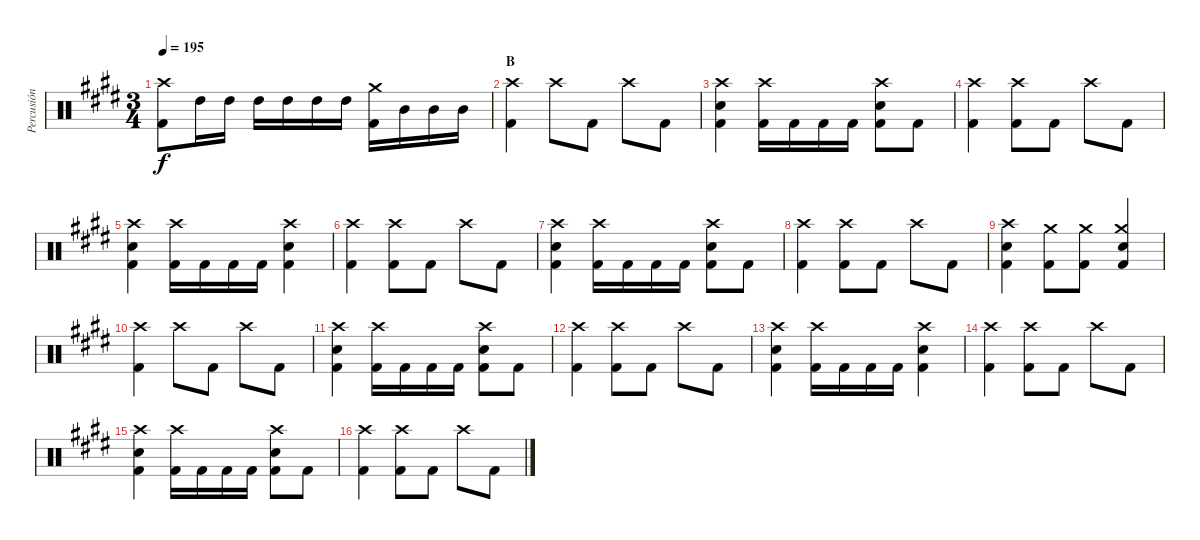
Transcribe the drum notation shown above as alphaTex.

\track ("Percusión" "Percusión") {instrument percussion}
\staff {score}
\articulation defaults
\ts (3 4)
\tempo 195
\clef neutral
\ks e
("Crash high (hit)" "Kick (hit) 2").8{dy f} "High Tom (hit)".16 "High Tom (hit)".16 "High Tom (hit)".16 "High Tom (hit)".16 "High Tom (hit)".16 "High Tom (hit)".16 ("Crash medium (hit)" "Kick (hit) 2").16 "Mid Tom (hit)".16 "Mid Tom (hit)".16 "Mid Tom (hit)".16 |
\section ("" "B")
("Crash high (hit)" "Kick (hit) 2").4 "Crash high (hit)".8 "Kick (hit) 2".8 "Crash high (hit)".8 "Kick (hit) 2".8 |
("Crash high (hit)" "Electric Snare (hit)" "Kick (hit) 2").4 ("Crash high (hit)" "Kick (hit) 2").16 "Kick (hit) 2".16 "Kick (hit) 2".16 "Kick (hit) 2".16 ("Crash high (hit)" "Electric Snare (hit)" "Kick (hit) 2").8 "Kick (hit) 2".8 |
("Crash high (hit)" "Kick (hit) 2").4 ("Crash high (hit)" "Kick (hit) 2").8 "Kick (hit) 2".8 "Crash high (hit)".8 "Kick (hit) 2".8 |
("Crash high (hit)" "Electric Snare (hit)" "Kick (hit) 2").4 ("Crash high (hit)" "Kick (hit) 2").16 "Kick (hit) 2".16 "Kick (hit) 2".16 "Kick (hit) 2".16 ("Crash high (hit)" "Electric Snare (hit)" "Kick (hit) 2").4 |
("Crash high (hit)" "Kick (hit) 2").4 ("Crash high (hit)" "Kick (hit) 2").8 "Kick (hit) 2".8 "Crash high (hit)".8 "Kick (hit) 2".8 |
("Crash high (hit)" "Electric Snare (hit)" "Kick (hit) 2").4 ("Crash high (hit)" "Kick (hit) 2").16 "Kick (hit) 2".16 "Kick (hit) 2".16 "Kick (hit) 2".16 ("Crash high (hit)" "Electric Snare (hit)" "Kick (hit) 2").8 "Kick (hit) 2".8 |
("Crash high (hit)" "Kick (hit) 2").4 ("Crash high (hit)" "Kick (hit) 2").8 "Kick (hit) 2".8 "Crash high (hit)".8 "Kick (hit) 2".8 |
("Crash high (hit)" "Electric Snare (hit)" "Kick (hit) 2").4 ("Crash medium (hit)" "Kick (hit) 2").8 ("Crash medium (hit)" "Kick (hit) 2").8 ("Crash medium (hit)" "Electric Snare (hit)" "Kick (hit) 2").4 |
("Crash high (hit)" "Kick (hit) 2").4 "Crash high (hit)".8 "Kick (hit) 2".8 "Crash high (hit)".8 "Kick (hit) 2".8 |
("Crash high (hit)" "Electric Snare (hit)" "Kick (hit) 2").4 ("Crash high (hit)" "Kick (hit) 2").16 "Kick (hit) 2".16 "Kick (hit) 2".16 "Kick (hit) 2".16 ("Crash high (hit)" "Electric Snare (hit)" "Kick (hit) 2").8 "Kick (hit) 2".8 |
("Crash high (hit)" "Kick (hit) 2").4 ("Crash high (hit)" "Kick (hit) 2").8 "Kick (hit) 2".8 "Crash high (hit)".8 "Kick (hit) 2".8 |
("Crash high (hit)" "Electric Snare (hit)" "Kick (hit) 2").4 ("Crash high (hit)" "Kick (hit) 2").16 "Kick (hit) 2".16 "Kick (hit) 2".16 "Kick (hit) 2".16 ("Crash high (hit)" "Electric Snare (hit)" "Kick (hit) 2").4 |
("Crash high (hit)" "Kick (hit) 2").4 ("Crash high (hit)" "Kick (hit) 2").8 "Kick (hit) 2".8 "Crash high (hit)".8 "Kick (hit) 2".8 |
("Crash high (hit)" "Electric Snare (hit)" "Kick (hit) 2").4 ("Crash high (hit)" "Kick (hit) 2").16 "Kick (hit) 2".16 "Kick (hit) 2".16 "Kick (hit) 2".16 ("Crash high (hit)" "Electric Snare (hit)" "Kick (hit) 2").8 "Kick (hit) 2".8 |
("Crash high (hit)" "Kick (hit) 2").4 ("Crash high (hit)" "Kick (hit) 2").8 "Kick (hit) 2".8 "Crash high (hit)".8 "Kick (hit) 2".8
